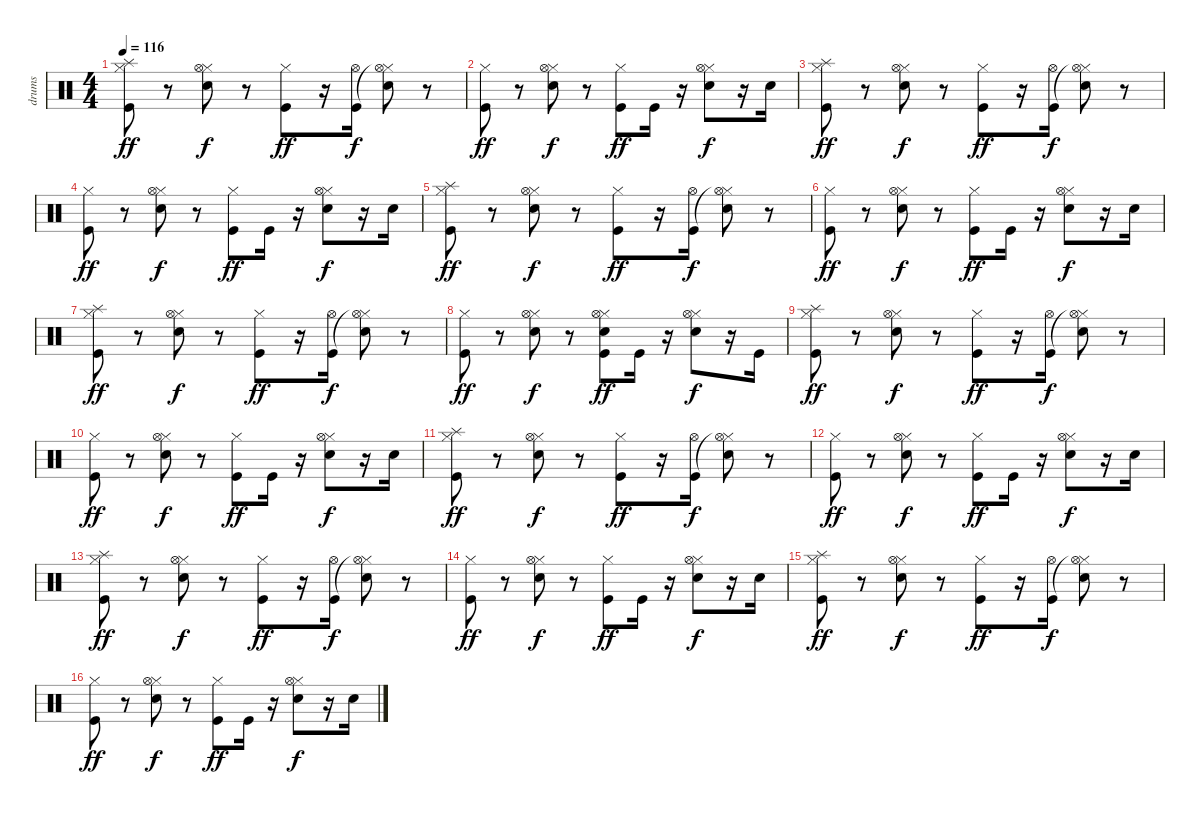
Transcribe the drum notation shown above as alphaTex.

\track ("drums" "drums") {instrument percussion}
\staff {score}
\articulation defaults
\ts (4 4)
\tempo 116
\clef neutral
\ks c
("Hi-Hat (closed)" "Splash (hit)" "Kick (hit)").8{dy ff} r.8 ("Hi-Hat (closed)" "Hi-Hat (open)" "Electric Snare (hit)").8{dy f} r.8 ("Hi-Hat (closed)" "Kick (hit)").8{dy ff} r.16 ("Hi-Hat (open)" "Kick (hit)").16{dy f} ("Hi-Hat (closed)" "Hi-Hat (open)"{t} "Electric Snare (hit)").8 r.8 |
("Hi-Hat (closed)" "Kick (hit)").8{dy ff} r.8 ("Hi-Hat (closed)" "Hi-Hat (open)" "Electric Snare (hit)").8{dy f} r.8 ("Hi-Hat (closed)" "Kick (hit)").8{dy ff} "Kick (hit)".16 r.16 ("Hi-Hat (closed)" "Hi-Hat (open)" "Electric Snare (hit)").8{dy f} r.16 "Electric Snare (hit)".16 |
("Hi-Hat (closed)" "Splash (hit)" "Kick (hit)").8{dy ff} r.8 ("Hi-Hat (closed)" "Hi-Hat (open)" "Electric Snare (hit)").8{dy f} r.8 ("Hi-Hat (closed)" "Kick (hit)").8{dy ff} r.16 ("Hi-Hat (open)" "Kick (hit)").16{dy f} ("Hi-Hat (closed)" "Hi-Hat (open)"{t} "Electric Snare (hit)").8 r.8 |
("Hi-Hat (closed)" "Kick (hit)").8{dy ff} r.8 ("Hi-Hat (closed)" "Hi-Hat (open)" "Electric Snare (hit)").8{dy f} r.8 ("Hi-Hat (closed)" "Kick (hit)").8{dy ff} "Kick (hit)".16 r.16 ("Hi-Hat (closed)" "Hi-Hat (open)" "Electric Snare (hit)").8{dy f} r.16 "Electric Snare (hit)".16 |
("Hi-Hat (closed)" "Splash (hit)" "Kick (hit)").8{dy ff} r.8 ("Hi-Hat (closed)" "Hi-Hat (open)" "Electric Snare (hit)").8{dy f} r.8 ("Hi-Hat (closed)" "Kick (hit)").8{dy ff} r.16 ("Hi-Hat (open)" "Kick (hit)").16{dy f} ("Hi-Hat (closed)" "Hi-Hat (open)"{t} "Electric Snare (hit)").8 r.8 |
("Hi-Hat (closed)" "Kick (hit)").8{dy ff} r.8 ("Hi-Hat (closed)" "Hi-Hat (open)" "Electric Snare (hit)").8{dy f} r.8 ("Hi-Hat (closed)" "Kick (hit)").8{dy ff} "Kick (hit)".16 r.16 ("Hi-Hat (closed)" "Hi-Hat (open)" "Electric Snare (hit)").8{dy f} r.16 "Electric Snare (hit)".16 |
("Hi-Hat (closed)" "Splash (hit)" "Kick (hit)").8{dy ff} r.8 ("Hi-Hat (closed)" "Hi-Hat (open)" "Electric Snare (hit)").8{dy f} r.8 ("Hi-Hat (closed)" "Kick (hit)").8{dy ff} r.16 ("Hi-Hat (open)" "Kick (hit)").16{dy f} ("Hi-Hat (closed)" "Hi-Hat (open)"{t} "Electric Snare (hit)").8 r.8 |
("Hi-Hat (closed)" "Kick (hit)").8{dy ff} r.8 ("Hi-Hat (closed)" "Hi-Hat (open)" "Electric Snare (hit)").8{dy f} r.8 ("Hi-Hat (closed)" "Hi-Hat (open)" "Electric Snare (hit)" "Kick (hit)").8{dy ff} "Kick (hit)".16 r.16 ("Hi-Hat (closed)" "Hi-Hat (open)" "Electric Snare (hit)").8{dy f} r.16 "Kick (hit)".16 |
("Hi-Hat (closed)" "Splash (hit)" "Kick (hit)").8{dy ff} r.8 ("Hi-Hat (closed)" "Hi-Hat (open)" "Electric Snare (hit)").8{dy f} r.8 ("Hi-Hat (closed)" "Kick (hit)").8{dy ff} r.16 ("Hi-Hat (open)" "Kick (hit)").16{dy f} ("Hi-Hat (closed)" "Hi-Hat (open)"{t} "Electric Snare (hit)").8 r.8 |
("Hi-Hat (closed)" "Kick (hit)").8{dy ff} r.8 ("Hi-Hat (closed)" "Hi-Hat (open)" "Electric Snare (hit)").8{dy f} r.8 ("Hi-Hat (closed)" "Kick (hit)").8{dy ff} "Kick (hit)".16 r.16 ("Hi-Hat (closed)" "Hi-Hat (open)" "Electric Snare (hit)").8{dy f} r.16 "Electric Snare (hit)".16 |
("Hi-Hat (closed)" "Splash (hit)" "Kick (hit)").8{dy ff} r.8 ("Hi-Hat (closed)" "Hi-Hat (open)" "Electric Snare (hit)").8{dy f} r.8 ("Hi-Hat (closed)" "Kick (hit)").8{dy ff} r.16 ("Hi-Hat (open)" "Kick (hit)").16{dy f} ("Hi-Hat (closed)" "Hi-Hat (open)"{t} "Electric Snare (hit)").8 r.8 |
("Hi-Hat (closed)" "Kick (hit)").8{dy ff} r.8 ("Hi-Hat (closed)" "Hi-Hat (open)" "Electric Snare (hit)").8{dy f} r.8 ("Hi-Hat (closed)" "Kick (hit)").8{dy ff} "Kick (hit)".16 r.16 ("Hi-Hat (closed)" "Hi-Hat (open)" "Electric Snare (hit)").8{dy f} r.16 "Electric Snare (hit)".16 |
("Hi-Hat (closed)" "Splash (hit)" "Kick (hit)").8{dy ff} r.8 ("Hi-Hat (closed)" "Hi-Hat (open)" "Electric Snare (hit)").8{dy f} r.8 ("Hi-Hat (closed)" "Kick (hit)").8{dy ff} r.16 ("Hi-Hat (open)" "Kick (hit)").16{dy f} ("Hi-Hat (closed)" "Hi-Hat (open)"{t} "Electric Snare (hit)").8 r.8 |
("Hi-Hat (closed)" "Kick (hit)").8{dy ff} r.8 ("Hi-Hat (closed)" "Hi-Hat (open)" "Electric Snare (hit)").8{dy f} r.8 ("Hi-Hat (closed)" "Kick (hit)").8{dy ff} "Kick (hit)".16 r.16 ("Hi-Hat (closed)" "Hi-Hat (open)" "Electric Snare (hit)").8{dy f} r.16 "Electric Snare (hit)".16 |
("Hi-Hat (closed)" "Splash (hit)" "Kick (hit)").8{dy ff} r.8 ("Hi-Hat (closed)" "Hi-Hat (open)" "Electric Snare (hit)").8{dy f} r.8 ("Hi-Hat (closed)" "Kick (hit)").8{dy ff} r.16 ("Hi-Hat (open)" "Kick (hit)").16{dy f} ("Hi-Hat (closed)" "Hi-Hat (open)"{t} "Electric Snare (hit)").8 r.8 |
("Hi-Hat (closed)" "Kick (hit)").8{dy ff} r.8 ("Hi-Hat (closed)" "Hi-Hat (open)" "Electric Snare (hit)").8{dy f} r.8 ("Hi-Hat (closed)" "Kick (hit)").8{dy ff} "Kick (hit)".16 r.16 ("Hi-Hat (closed)" "Hi-Hat (open)" "Electric Snare (hit)").8{dy f} r.16 "Electric Snare (hit)".16
